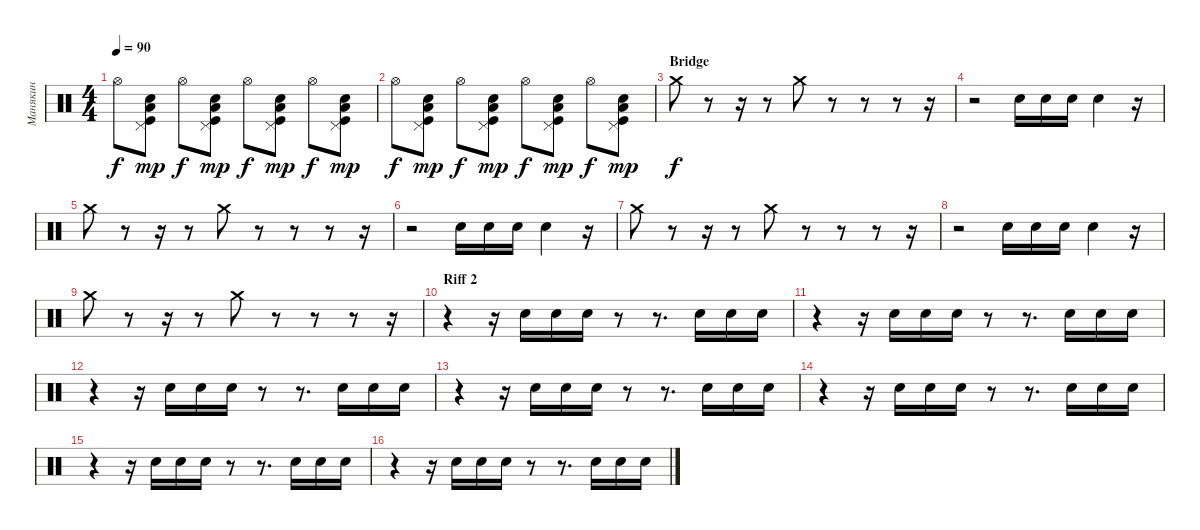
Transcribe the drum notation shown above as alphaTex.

\track ("Манякин" "Манякин") {instrument percussion}
\staff {score}
\articulation defaults
\ts (4 4)
\tempo 90
\clef neutral
\ks c "Hi-Hat (open)".8{dy f}
("Low Tom (hit)" "Kick (hit)" "Pedal Hi-Hat (hit)" "Electric Snare (hit)").8{dy mp} "Hi-Hat (open)".8{dy f} ("Low Tom (hit)" "Kick (hit)" "Pedal Hi-Hat (hit)" "Electric Snare (hit)").8{dy mp} "Hi-Hat (open)".8{dy f} ("Low Tom (hit)" "Kick (hit)" "Pedal Hi-Hat (hit)" "Electric Snare (hit)").8{dy mp} "Hi-Hat (open)".8{dy f} ("Low Tom (hit)" "Kick (hit)" "Pedal Hi-Hat (hit)" "Electric Snare (hit)").8{dy mp} |
"Hi-Hat (open)".8{dy f} ("Low Tom (hit)" "Kick (hit)" "Pedal Hi-Hat (hit)" "Electric Snare (hit)").8{dy mp} "Hi-Hat (open)".8{dy f} ("Low Tom (hit)" "Kick (hit)" "Pedal Hi-Hat (hit)" "Electric Snare (hit)").8{dy mp} "Hi-Hat (open)".8{dy f} ("Low Tom (hit)" "Kick (hit)" "Pedal Hi-Hat (hit)" "Electric Snare (hit)").8{dy mp} "Hi-Hat (open)".8{dy f} ("Low Tom (hit)" "Kick (hit)" "Pedal Hi-Hat (hit)" "Electric Snare (hit)").8{dy mp} |
\section ("" "Bridge")
"Crash medium (hit)".8{dy f volume 13} r.8 r.16 r.8 "Crash medium (hit)".8 r.8 r.8 r.8 r.16 |
r.2 "Electric Snare (hit)".16 "Electric Snare (hit)".16 "Electric Snare (hit)".16 "Electric Snare (hit)".4 r.16 |
"Crash medium (hit)".8 r.8 r.16 r.8 "Crash medium (hit)".8 r.8 r.8 r.8 r.16 |
r.2 "Electric Snare (hit)".16 "Electric Snare (hit)".16 "Electric Snare (hit)".16 "Electric Snare (hit)".4 r.16 |
"Crash medium (hit)".8 r.8 r.16 r.8 "Crash medium (hit)".8 r.8 r.8 r.8 r.16 |
r.2 "Electric Snare (hit)".16 "Electric Snare (hit)".16 "Electric Snare (hit)".16 "Electric Snare (hit)".4 r.16 |
"Crash medium (hit)".8 r.8 r.16 r.8 "Crash medium (hit)".8 r.8 r.8 r.8 r.16 |
\section ("" "Riff 2")
r.4{volume 15} r.16 "Snare (hit) 2".16 "Snare (hit) 2".16 "Snare (hit) 2".16 r.8 r.8{d} "Snare (hit) 2".16 "Snare (hit) 2".16 "Snare (hit) 2".16 |
r.4 r.16 "Snare (hit) 2".16 "Snare (hit) 2".16 "Snare (hit) 2".16 r.8 r.8{d} "Snare (hit) 2".16 "Snare (hit) 2".16 "Snare (hit) 2".16 |
r.4 r.16 "Snare (hit) 2".16 "Snare (hit) 2".16 "Snare (hit) 2".16 r.8 r.8{d} "Snare (hit) 2".16 "Snare (hit) 2".16 "Snare (hit) 2".16 |
r.4 r.16 "Snare (hit) 2".16 "Snare (hit) 2".16 "Snare (hit) 2".16 r.8 r.8{d} "Snare (hit) 2".16 "Snare (hit) 2".16 "Snare (hit) 2".16 |
r.4 r.16 "Snare (hit) 2".16 "Snare (hit) 2".16 "Snare (hit) 2".16 r.8 r.8{d} "Snare (hit) 2".16 "Snare (hit) 2".16 "Snare (hit) 2".16 |
r.4 r.16 "Snare (hit) 2".16 "Snare (hit) 2".16 "Snare (hit) 2".16 r.8 r.8{d} "Snare (hit) 2".16 "Snare (hit) 2".16 "Snare (hit) 2".16 |
r.4 r.16 "Snare (hit) 2".16 "Snare (hit) 2".16 "Snare (hit) 2".16 r.8 r.8{d} "Snare (hit) 2".16 "Snare (hit) 2".16 "Snare (hit) 2".16
